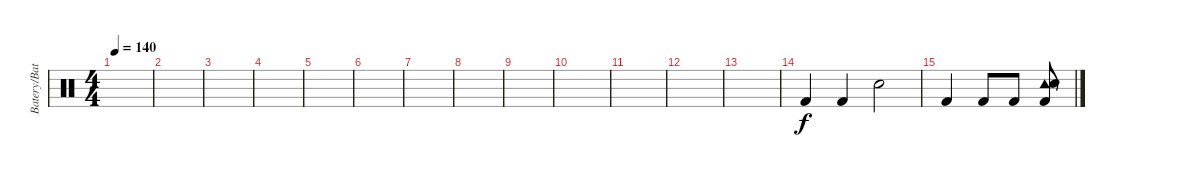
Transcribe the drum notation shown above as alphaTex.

\track ("Batery/Bateria" "Batery/Bat") {instrument percussion}
\staff {score}
\articulation defaults
\ts (4 4)
\tempo 140
\clef neutral
\ks c
|
|
|
|
|
|
|
|
|
|
|
|
|
"Kick (hit) 2".4 "Kick (hit) 2".4 "Snare (hit) 2".2 |
"Kick (hit) 2".4 "Kick (hit) 2".8 "Kick (hit) 2".8 ("Tambourine (hit)" "Snare (hit) 2" "Kick (hit) 2").8
